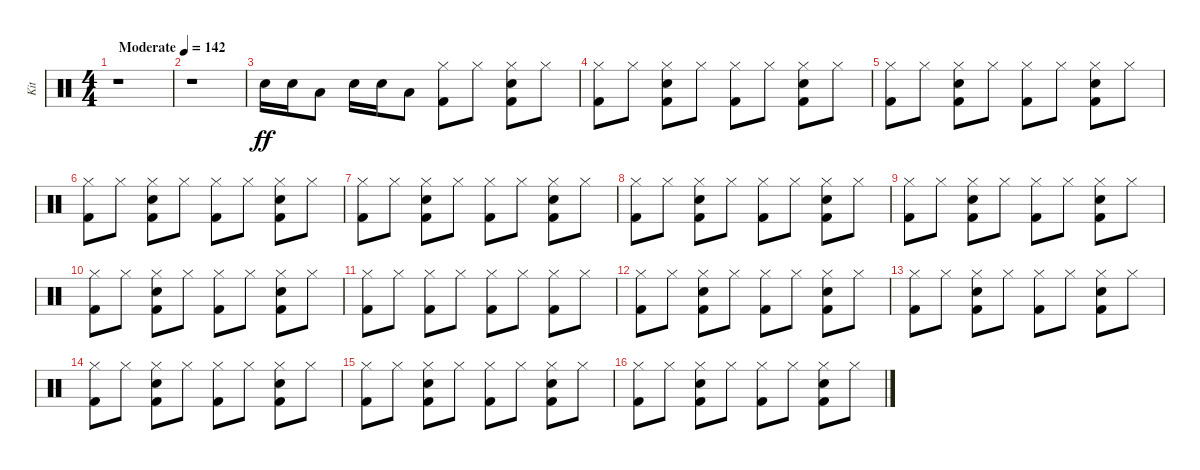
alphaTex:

\track ("Kit" "Kit") {instrument percussion}
\staff {score}
\articulation defaults
\ts (4 4)
\tempo (142 "Moderate")
\clef neutral
\ks c
r.1{dy ff} |
r.1 |
"Electric Snare (hit)".16 "Electric Snare (hit)".16 "Low Tom (hit)".8 "Electric Snare (hit)".16 "Electric Snare (hit)".16 "Low Tom (hit)".8 ("Kick (hit) 2" "Hi-Hat (closed)").8 "Hi-Hat (closed)".8 ("Kick (hit) 2" "Electric Snare (hit)" "Hi-Hat (closed)").8 "Hi-Hat (closed)".8 |
("Kick (hit) 2" "Hi-Hat (closed)").8 "Hi-Hat (closed)".8 ("Kick (hit) 2" "Electric Snare (hit)" "Hi-Hat (closed)").8 "Hi-Hat (closed)".8 ("Kick (hit) 2" "Hi-Hat (closed)").8 "Hi-Hat (closed)".8 ("Kick (hit) 2" "Electric Snare (hit)" "Hi-Hat (closed)").8 "Hi-Hat (closed)".8 |
("Kick (hit) 2" "Hi-Hat (closed)").8 "Hi-Hat (closed)".8 ("Kick (hit) 2" "Electric Snare (hit)" "Hi-Hat (closed)").8 "Hi-Hat (closed)".8 ("Kick (hit) 2" "Hi-Hat (closed)").8 "Hi-Hat (closed)".8 ("Kick (hit) 2" "Electric Snare (hit)" "Hi-Hat (closed)").8 "Hi-Hat (closed)".8 |
("Kick (hit) 2" "Hi-Hat (closed)").8 "Hi-Hat (closed)".8 ("Kick (hit) 2" "Electric Snare (hit)" "Hi-Hat (closed)").8 "Hi-Hat (closed)".8 ("Kick (hit) 2" "Hi-Hat (closed)").8 "Hi-Hat (closed)".8 ("Kick (hit) 2" "Electric Snare (hit)" "Hi-Hat (closed)").8 "Hi-Hat (closed)".8 |
("Kick (hit) 2" "Hi-Hat (closed)").8 "Hi-Hat (closed)".8 ("Kick (hit) 2" "Electric Snare (hit)" "Hi-Hat (closed)").8 "Hi-Hat (closed)".8 ("Kick (hit) 2" "Hi-Hat (closed)").8 "Hi-Hat (closed)".8 ("Kick (hit) 2" "Electric Snare (hit)" "Hi-Hat (closed)").8 "Hi-Hat (closed)".8 |
("Kick (hit) 2" "Hi-Hat (closed)").8 "Hi-Hat (closed)".8 ("Kick (hit) 2" "Electric Snare (hit)" "Hi-Hat (closed)").8 "Hi-Hat (closed)".8 ("Kick (hit) 2" "Hi-Hat (closed)").8 "Hi-Hat (closed)".8 ("Kick (hit) 2" "Electric Snare (hit)" "Hi-Hat (closed)").8 "Hi-Hat (closed)".8 |
("Kick (hit) 2" "Hi-Hat (closed)").8 "Hi-Hat (closed)".8 ("Kick (hit) 2" "Electric Snare (hit)" "Hi-Hat (closed)").8 "Hi-Hat (closed)".8 ("Kick (hit) 2" "Hi-Hat (closed)").8 "Hi-Hat (closed)".8 ("Kick (hit) 2" "Electric Snare (hit)" "Hi-Hat (closed)").8 "Hi-Hat (closed)".8 |
("Kick (hit) 2" "Hi-Hat (closed)").8 "Hi-Hat (closed)".8 ("Kick (hit) 2" "Electric Snare (hit)" "Hi-Hat (closed)").8 "Hi-Hat (closed)".8 ("Kick (hit) 2" "Hi-Hat (closed)").8 "Hi-Hat (closed)".8 ("Kick (hit) 2" "Electric Snare (hit)" "Hi-Hat (closed)").8 "Hi-Hat (closed)".8 |
("Kick (hit) 2" "Hi-Hat (closed)").8 "Hi-Hat (closed)".8 ("Kick (hit) 2" "Hi-Hat (closed)").8 "Hi-Hat (closed)".8 ("Kick (hit) 2" "Hi-Hat (closed)").8 "Hi-Hat (closed)".8 ("Kick (hit) 2" "Hi-Hat (closed)").8 "Hi-Hat (closed)".8 |
("Kick (hit) 2" "Hi-Hat (closed)").8 "Hi-Hat (closed)".8 ("Kick (hit) 2" "Electric Snare (hit)" "Hi-Hat (closed)").8 "Hi-Hat (closed)".8 ("Kick (hit) 2" "Hi-Hat (closed)").8 "Hi-Hat (closed)".8 ("Kick (hit) 2" "Electric Snare (hit)" "Hi-Hat (closed)").8 "Hi-Hat (closed)".8 |
("Kick (hit) 2" "Hi-Hat (closed)").8 "Hi-Hat (closed)".8 ("Kick (hit) 2" "Electric Snare (hit)" "Hi-Hat (closed)").8 "Hi-Hat (closed)".8 ("Kick (hit) 2" "Hi-Hat (closed)").8 "Hi-Hat (closed)".8 ("Kick (hit) 2" "Electric Snare (hit)" "Hi-Hat (closed)").8 "Hi-Hat (closed)".8 |
("Kick (hit) 2" "Hi-Hat (closed)").8 "Hi-Hat (closed)".8 ("Kick (hit) 2" "Electric Snare (hit)" "Hi-Hat (closed)").8 "Hi-Hat (closed)".8 ("Kick (hit) 2" "Hi-Hat (closed)").8 "Hi-Hat (closed)".8 ("Kick (hit) 2" "Electric Snare (hit)" "Hi-Hat (closed)").8 "Hi-Hat (closed)".8 |
("Kick (hit) 2" "Hi-Hat (closed)").8 "Hi-Hat (closed)".8 ("Kick (hit) 2" "Electric Snare (hit)" "Hi-Hat (closed)").8 "Hi-Hat (closed)".8 ("Kick (hit) 2" "Hi-Hat (closed)").8 "Hi-Hat (closed)".8 ("Kick (hit) 2" "Electric Snare (hit)" "Hi-Hat (closed)").8 "Hi-Hat (closed)".8 |
("Kick (hit) 2" "Hi-Hat (closed)").8 "Hi-Hat (closed)".8 ("Kick (hit) 2" "Electric Snare (hit)" "Hi-Hat (closed)").8 "Hi-Hat (closed)".8 ("Kick (hit) 2" "Hi-Hat (closed)").8 "Hi-Hat (closed)".8 ("Kick (hit) 2" "Electric Snare (hit)" "Hi-Hat (closed)").8 "Hi-Hat (closed)".8
